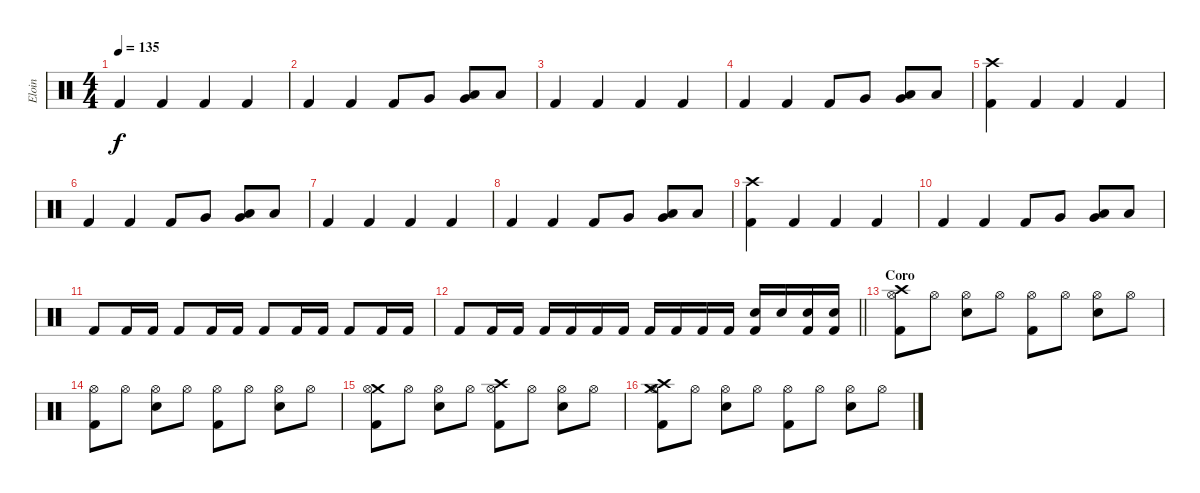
\track ("Eloin" "Eloin") {instrument percussion}
\staff {score}
\articulation defaults
\ts (4 4)
\tempo 135
\clef neutral
\ks c "Kick (hit) 2".4{dy f} "Kick (hit) 2".4 "Kick (hit) 2".4 "Kick (hit) 2".4
|
"Kick (hit) 2".4 "Kick (hit) 2".4 "Kick (hit) 2".8 "Very Low Tom (hit)".8 ("Low Floor Tom (hit)" "Very Low Tom (hit)").8 "Low Floor Tom (hit)".8 |
"Kick (hit) 2".4 "Kick (hit) 2".4 "Kick (hit) 2".4 "Kick (hit) 2".4 |
"Kick (hit) 2".4 "Kick (hit) 2".4 "Kick (hit) 2".8 "Very Low Tom (hit)".8 ("Low Floor Tom (hit)" "Very Low Tom (hit)").8 "Low Floor Tom (hit)".8 |
("Crash high (hit)" "Kick (hit) 2").4 "Kick (hit) 2".4 "Kick (hit) 2".4 "Kick (hit) 2".4 |
"Kick (hit) 2".4 "Kick (hit) 2".4 "Kick (hit) 2".8 "Very Low Tom (hit)".8 ("Low Floor Tom (hit)" "Very Low Tom (hit)").8 "Low Floor Tom (hit)".8 |
"Kick (hit) 2".4 "Kick (hit) 2".4 "Kick (hit) 2".4 "Kick (hit) 2".4 |
"Kick (hit) 2".4 "Kick (hit) 2".4 "Kick (hit) 2".8 "Very Low Tom (hit)".8 ("Low Floor Tom (hit)" "Very Low Tom (hit)").8 "Low Floor Tom (hit)".8 |
("Crash high (hit)" "Kick (hit) 2").4 "Kick (hit) 2".4 "Kick (hit) 2".4 "Kick (hit) 2".4 |
"Kick (hit) 2".4 "Kick (hit) 2".4 "Kick (hit) 2".8 "Very Low Tom (hit)".8 ("Low Floor Tom (hit)" "Very Low Tom (hit)").8 "Low Floor Tom (hit)".8 |
"Kick (hit) 2".8 "Kick (hit) 2".16 "Kick (hit) 2".16 "Kick (hit) 2".8 "Kick (hit) 2".16 "Kick (hit) 2".16 "Kick (hit) 2".8 "Kick (hit) 2".16 "Kick (hit) 2".16 "Kick (hit) 2".8 "Kick (hit) 2".16 "Kick (hit) 2".16 |
\barLineRight lightlight "Kick (hit) 2".8 "Kick (hit) 2".16 "Kick (hit) 2".16 "Kick (hit) 2".16 "Kick (hit) 2".16 "Kick (hit) 2".16 "Kick (hit) 2".16 "Kick (hit) 2".16 "Kick (hit) 2".16 "Kick (hit) 2".16 "Kick (hit) 2".16
("Electric Snare (hit)" "Kick (hit) 2").16 "Electric Snare (hit)".16 ("Electric Snare (hit)" "Kick (hit) 2").16 ("Electric Snare (hit)" "Kick (hit) 2").16 |
\section ("" "Coro")
("Crash high (hit)" "Hi-Hat (open)" "Kick (hit) 2").8 "Hi-Hat (open)".8 ("Hi-Hat (open)" "Electric Snare (hit)").8 "Hi-Hat (open)".8 ("Hi-Hat (open)" "Kick (hit) 2").8 "Hi-Hat (open)".8 ("Hi-Hat (open)" "Electric Snare (hit)").8 "Hi-Hat (open)".8 |
("Hi-Hat (open)" "Kick (hit) 2").8 "Hi-Hat (open)".8 ("Hi-Hat (open)" "Electric Snare (hit)").8 "Hi-Hat (open)".8 ("Hi-Hat (open)" "Kick (hit) 2").8 "Hi-Hat (open)".8 ("Hi-Hat (open)" "Electric Snare (hit)").8 "Hi-Hat (open)".8 |
("Crash medium (hit)" "Hi-Hat (open)" "Kick (hit) 2").8 "Hi-Hat (open)".8 ("Hi-Hat (open)" "Electric Snare (hit)").8 "Hi-Hat (open)".8 ("Crash high (hit)" "Hi-Hat (open)" "Kick (hit) 2").8 "Hi-Hat (open)".8 ("Hi-Hat (open)" "Electric Snare (hit)").8 "Hi-Hat (open)".8 |
("Crash medium (hit)" "Crash high (hit)" "Hi-Hat (open)" "Kick (hit) 2").8 "Hi-Hat (open)".8 ("Hi-Hat (open)" "Electric Snare (hit)").8 "Hi-Hat (open)".8 ("Hi-Hat (open)" "Kick (hit) 2").8 "Hi-Hat (open)".8 ("Hi-Hat (open)" "Electric Snare (hit)").8 "Hi-Hat (open)".8
